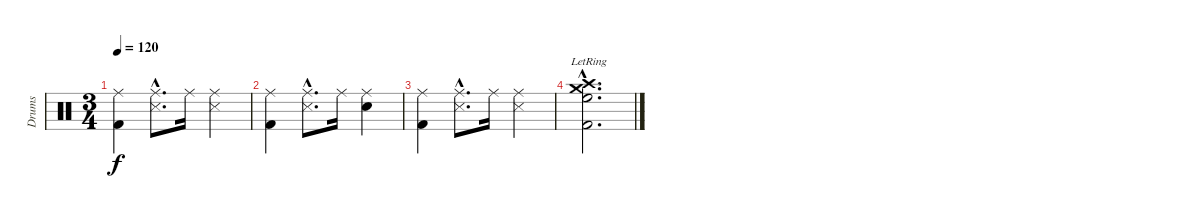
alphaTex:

\track ("Drums" "Drums") {instrument percussion}
\staff {score}
\articulation defaults
\ts (3 4)
\tempo 120
\clef neutral
\ks c
("Ride (middle)" "Kick (hit) 2").4{dy f} ("Ride (middle)"{hac} "Snare (side stick) 3"{hac}).8{d} "Ride (middle)".16 ("Ride (middle)" "Snare (side stick) 3").4 |
("Ride (middle)" "Kick (hit) 2").4 ("Ride (middle)"{hac} "Snare (side stick) 3"{hac}).8{d} "Ride (middle)".16 ("Ride (middle)" "Snare (hit) 2").4 |
("Ride (middle)" "Kick (hit) 2").4 ("Ride (middle)"{hac} "Snare (side stick) 3"{hac}).8{d} "Ride (middle)".16 ("Ride (middle)" "Snare (side stick) 3").4 |
("Crash medium (hit)"{hac lr} "Crash high (hit)"{hac lr} "High Floor Tom (hit)"{hac lr} "Kick (hit) 2"{hac lr}).2{d}
